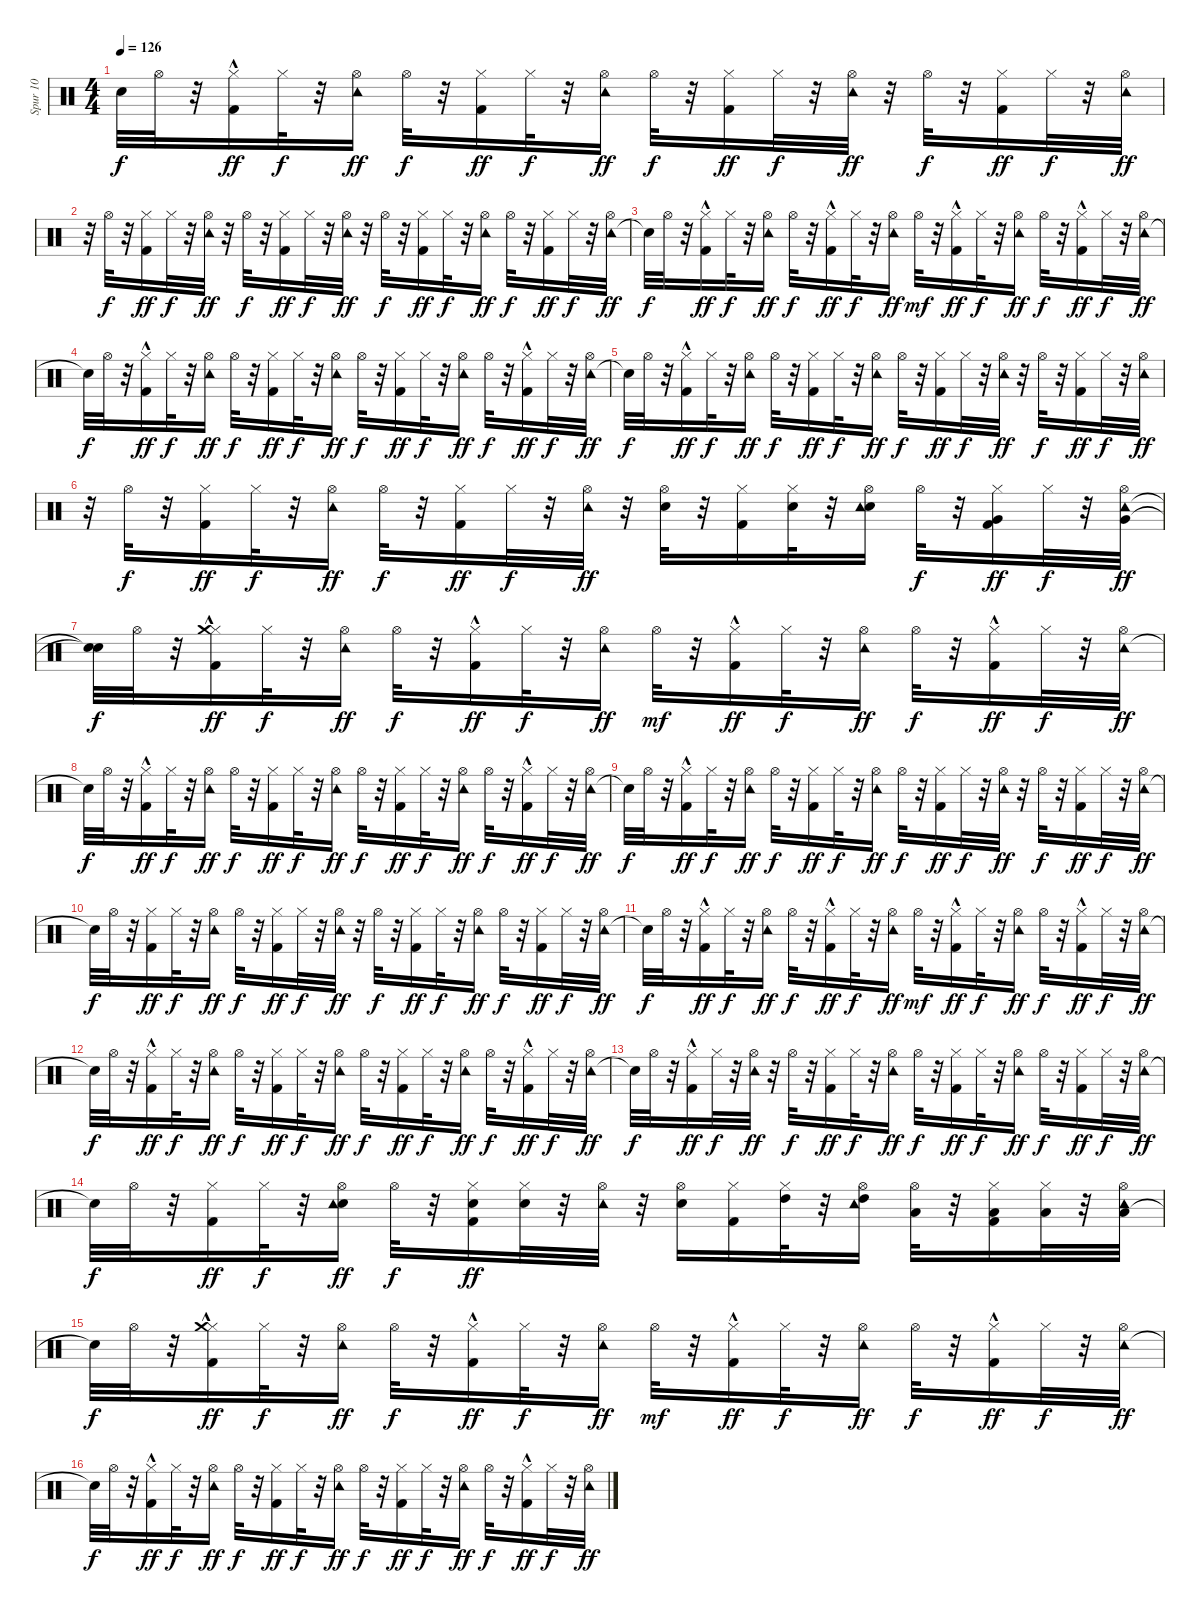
\track ("Spur 10" "Spur 10") {instrument percussion}
\staff {score}
\articulation defaults
\ts (4 4)
\tempo 126
\clef neutral
\ks c "Snare (hit)"{t}.32{dy f} "Hi-Hat (open)".32
r.32 ("Kick (hit) 2"{hac} "Hi-Hat (closed)").16{dy ff} "Hi-Hat (closed)".32{dy f} r.32 ("Tambourine (hit)" "Hi-Hat (open)").16{dy ff} "Hi-Hat (open)".32{dy f} r.32 ("Kick (hit) 2" "Hi-Hat (closed)").16{dy ff} "Hi-Hat (closed)".32{dy f} r.32 ("Tambourine (hit)" "Hi-Hat (open)").16{dy ff} "Hi-Hat (open)".32{dy f} r.32 ("Kick (hit) 2" "Hi-Hat (closed)").16{dy ff} "Hi-Hat (closed)".32{dy f} r.32 ("Tambourine (hit)" "Hi-Hat (open)").32{dy ff} r.32 "Hi-Hat (open)".32{dy f} r.32 ("Kick (hit) 2" "Hi-Hat (closed)").16{dy ff} "Hi-Hat (closed)".32{dy f} r.32 ("Tambourine (hit)" "Hi-Hat (open)").32{dy ff} |
r.32 "Hi-Hat (open)".32{dy f} r.32 ("Kick (hit) 2" "Hi-Hat (closed)").16{dy ff} "Hi-Hat (closed)".32{dy f} r.32 ("Tambourine (hit)" "Hi-Hat (open)").32{dy ff} r.32 "Hi-Hat (open)".32{dy f} r.32 ("Kick (hit) 2" "Hi-Hat (closed)").16{dy ff} "Hi-Hat (closed)".32{dy f} r.32 ("Tambourine (hit)" "Hi-Hat (open)").32{dy ff} r.32 "Hi-Hat (open)".32{dy f} r.32 ("Kick (hit) 2" "Hi-Hat (closed)").16{dy ff} "Hi-Hat (closed)".32{dy f} r.32 ("Tambourine (hit)" "Hi-Hat (open)").16{dy ff} "Hi-Hat (open)".32{dy f} r.32 ("Kick (hit) 2" "Hi-Hat (closed)").16{dy ff} "Hi-Hat (closed)".32{dy f} r.32 ("Tambourine (hit)" "Hi-Hat (open)").32{dy ff} |
"Snare (hit)"{t}.32{dy f} "Hi-Hat (open)".32 r.32 ("Kick (hit) 2"{hac} "Hi-Hat (closed)").16{dy ff} "Hi-Hat (closed)".32{dy f} r.32 ("Tambourine (hit)" "Hi-Hat (open)").16{dy ff} "Hi-Hat (open)".32{dy f} r.32 ("Kick (hit) 2"{hac} "Hi-Hat (closed)").16{dy ff} "Hi-Hat (closed)".32{dy f} r.32 ("Tambourine (hit)" "Hi-Hat (open)").16{dy ff} "Hi-Hat (open)".32{dy mf} r.32 ("Kick (hit) 2"{hac} "Hi-Hat (closed)").16{dy ff} "Hi-Hat (closed)".32{dy f} r.32 ("Tambourine (hit)" "Hi-Hat (open)").16{dy ff} "Hi-Hat (open)".32{dy f} r.32 ("Kick (hit) 2"{hac} "Hi-Hat (closed)").16{dy ff} "Hi-Hat (closed)".32{dy f} r.32 ("Tambourine (hit)" "Hi-Hat (open)").32{dy ff} |
"Snare (hit)"{t}.32{dy f} "Hi-Hat (open)".32 r.32 ("Kick (hit) 2"{hac} "Hi-Hat (closed)").16{dy ff} "Hi-Hat (closed)".32{dy f} r.32 ("Tambourine (hit)" "Hi-Hat (open)").16{dy ff} "Hi-Hat (open)".32{dy f} r.32 ("Kick (hit) 2" "Hi-Hat (closed)").16{dy ff} "Hi-Hat (closed)".32{dy f} r.32 ("Tambourine (hit)" "Hi-Hat (open)").16{dy ff} "Hi-Hat (open)".32{dy f} r.32 ("Kick (hit) 2" "Hi-Hat (closed)").16{dy ff} "Hi-Hat (closed)".32{dy f} r.32 ("Tambourine (hit)" "Hi-Hat (open)").16{dy ff} "Hi-Hat (open)".32{dy f} r.32 ("Kick (hit) 2"{hac} "Hi-Hat (closed)").16{dy ff} "Hi-Hat (closed)".32{dy f} r.32 ("Tambourine (hit)" "Hi-Hat (open)").32{dy ff} |
"Snare (hit)"{t}.32{dy f} "Hi-Hat (open)".32 r.32 ("Kick (hit) 2"{hac} "Hi-Hat (closed)").16{dy ff} "Hi-Hat (closed)".32{dy f} r.32 ("Tambourine (hit)" "Hi-Hat (open)").16{dy ff} "Hi-Hat (open)".32{dy f} r.32 ("Kick (hit) 2" "Hi-Hat (closed)").16{dy ff} "Hi-Hat (closed)".32{dy f} r.32 ("Tambourine (hit)" "Hi-Hat (open)").16{dy ff} "Hi-Hat (open)".32{dy f} r.32 ("Kick (hit) 2" "Hi-Hat (closed)").16{dy ff} "Hi-Hat (closed)".32{dy f} r.32 ("Tambourine (hit)" "Hi-Hat (open)").32{dy ff} r.32 "Hi-Hat (open)".32{dy f} r.32 ("Kick (hit) 2" "Hi-Hat (closed)").16{dy ff} "Hi-Hat (closed)".32{dy f} r.32 ("Tambourine (hit)" "Hi-Hat (open)").32{dy ff} |
r.32 "Hi-Hat (open)".32{dy f} r.32 ("Kick (hit) 2" "Hi-Hat (closed)").16{dy ff} "Hi-Hat (closed)".32{dy f} r.32 ("Tambourine (hit)" "Hi-Hat (open)").16{dy ff} "Hi-Hat (open)".32{dy f} r.32 ("Kick (hit) 2" "Hi-Hat (closed)").16{dy ff} "Hi-Hat (closed)".32{dy f} r.32 ("Tambourine (hit)" "Hi-Hat (open)").32{dy ff} r.32 ("Electric Snare (hit)" "Hi-Hat (open)").32 r.32 ("Kick (hit) 2" "Hi-Hat (closed)").16 ("Electric Snare (hit)" "Hi-Hat (closed)").32 r.32 ("Electric Snare (hit)" "Tambourine (hit)" "Hi-Hat (open)").16 "Hi-Hat (open)".32{dy f} r.32 ("Very Low Tom (hit)" "Kick (hit) 2" "Hi-Hat (closed)").16{dy ff} "Hi-Hat (closed)".32{dy f} r.32 ("Very Low Tom (hit)" "Tambourine (hit)" "Hi-Hat (open)").32{dy ff} |
("Snare (hit)"{t} "Snare (hit)"{t}).32{dy f} "Hi-Hat (open)".32 r.32 ("Kick (hit) 2"{hac} "Hi-Hat (closed)" "Crash medium (hit)").16{dy ff} "Hi-Hat (closed)".32{dy f} r.32 ("Tambourine (hit)" "Hi-Hat (open)").16{dy ff} "Hi-Hat (open)".32{dy f} r.32 ("Kick (hit) 2"{hac} "Hi-Hat (closed)").16{dy ff} "Hi-Hat (closed)".32{dy f} r.32 ("Tambourine (hit)" "Hi-Hat (open)").16{dy ff} "Hi-Hat (open)".32{dy mf} r.32 ("Kick (hit) 2"{hac} "Hi-Hat (closed)").16{dy ff} "Hi-Hat (closed)".32{dy f} r.32 ("Tambourine (hit)" "Hi-Hat (open)").16{dy ff} "Hi-Hat (open)".32{dy f} r.32 ("Kick (hit) 2"{hac} "Hi-Hat (closed)").16{dy ff} "Hi-Hat (closed)".32{dy f} r.32 ("Tambourine (hit)" "Hi-Hat (open)").32{dy ff} |
"Snare (hit)"{t}.32{dy f} "Hi-Hat (open)".32 r.32 ("Kick (hit) 2"{hac} "Hi-Hat (closed)").16{dy ff} "Hi-Hat (closed)".32{dy f} r.32 ("Tambourine (hit)" "Hi-Hat (open)").16{dy ff} "Hi-Hat (open)".32{dy f} r.32 ("Kick (hit) 2" "Hi-Hat (closed)").16{dy ff} "Hi-Hat (closed)".32{dy f} r.32 ("Tambourine (hit)" "Hi-Hat (open)").16{dy ff} "Hi-Hat (open)".32{dy f} r.32 ("Kick (hit) 2" "Hi-Hat (closed)").16{dy ff} "Hi-Hat (closed)".32{dy f} r.32 ("Tambourine (hit)" "Hi-Hat (open)").16{dy ff} "Hi-Hat (open)".32{dy f} r.32 ("Kick (hit) 2"{hac} "Hi-Hat (closed)").16{dy ff} "Hi-Hat (closed)".32{dy f} r.32 ("Tambourine (hit)" "Hi-Hat (open)").32{dy ff} |
"Snare (hit)"{t}.32{dy f} "Hi-Hat (open)".32 r.32 ("Kick (hit) 2"{hac} "Hi-Hat (closed)").16{dy ff} "Hi-Hat (closed)".32{dy f} r.32 ("Tambourine (hit)" "Hi-Hat (open)").16{dy ff} "Hi-Hat (open)".32{dy f} r.32 ("Kick (hit) 2" "Hi-Hat (closed)").16{dy ff} "Hi-Hat (closed)".32{dy f} r.32 ("Tambourine (hit)" "Hi-Hat (open)").16{dy ff} "Hi-Hat (open)".32{dy f} r.32 ("Kick (hit) 2" "Hi-Hat (closed)").16{dy ff} "Hi-Hat (closed)".32{dy f} r.32 ("Tambourine (hit)" "Hi-Hat (open)").32{dy ff} r.32 "Hi-Hat (open)".32{dy f} r.32 ("Kick (hit) 2" "Hi-Hat (closed)").16{dy ff} "Hi-Hat (closed)".32{dy f} r.32 ("Tambourine (hit)" "Hi-Hat (open)").32{dy ff} |
"Snare (hit)"{t}.32{dy f} "Hi-Hat (open)".32 r.32 ("Kick (hit) 2" "Hi-Hat (closed)").16{dy ff} "Hi-Hat (closed)".32{dy f} r.32 ("Tambourine (hit)" "Hi-Hat (open)").16{dy ff} "Hi-Hat (open)".32{dy f} r.32 ("Kick (hit) 2" "Hi-Hat (closed)").16{dy ff} "Hi-Hat (closed)".32{dy f} r.32 ("Tambourine (hit)" "Hi-Hat (open)").32{dy ff} r.32 "Hi-Hat (open)".32{dy f} r.32 ("Kick (hit) 2" "Hi-Hat (closed)").16{dy ff} "Hi-Hat (closed)".32{dy f} r.32 ("Tambourine (hit)" "Hi-Hat (open)").16{dy ff} "Hi-Hat (open)".32{dy f} r.32 ("Kick (hit) 2" "Hi-Hat (closed)").16{dy ff} "Hi-Hat (closed)".32{dy f} r.32 ("Tambourine (hit)" "Hi-Hat (open)").32{dy ff} |
"Snare (hit)"{t}.32{dy f} "Hi-Hat (open)".32 r.32 ("Kick (hit) 2"{hac} "Hi-Hat (closed)").16{dy ff} "Hi-Hat (closed)".32{dy f} r.32 ("Tambourine (hit)" "Hi-Hat (open)").16{dy ff} "Hi-Hat (open)".32{dy f} r.32 ("Kick (hit) 2"{hac} "Hi-Hat (closed)").16{dy ff} "Hi-Hat (closed)".32{dy f} r.32 ("Tambourine (hit)" "Hi-Hat (open)").16{dy ff} "Hi-Hat (open)".32{dy mf} r.32 ("Kick (hit) 2"{hac} "Hi-Hat (closed)").16{dy ff} "Hi-Hat (closed)".32{dy f} r.32 ("Tambourine (hit)" "Hi-Hat (open)").16{dy ff} "Hi-Hat (open)".32{dy f} r.32 ("Kick (hit) 2"{hac} "Hi-Hat (closed)").16{dy ff} "Hi-Hat (closed)".32{dy f} r.32 ("Tambourine (hit)" "Hi-Hat (open)").32{dy ff} |
"Snare (hit)"{t}.32{dy f} "Hi-Hat (open)".32 r.32 ("Kick (hit) 2"{hac} "Hi-Hat (closed)").16{dy ff} "Hi-Hat (closed)".32{dy f} r.32 ("Tambourine (hit)" "Hi-Hat (open)").16{dy ff} "Hi-Hat (open)".32{dy f} r.32 ("Kick (hit) 2" "Hi-Hat (closed)").16{dy ff} "Hi-Hat (closed)".32{dy f} r.32 ("Tambourine (hit)" "Hi-Hat (open)").16{dy ff} "Hi-Hat (open)".32{dy f} r.32 ("Kick (hit) 2" "Hi-Hat (closed)").16{dy ff} "Hi-Hat (closed)".32{dy f} r.32 ("Tambourine (hit)" "Hi-Hat (open)").16{dy ff} "Hi-Hat (open)".32{dy f} r.32 ("Kick (hit) 2"{hac} "Hi-Hat (closed)").16{dy ff} "Hi-Hat (closed)".32{dy f} r.32 ("Tambourine (hit)" "Hi-Hat (open)").32{dy ff} |
"Snare (hit)"{t}.32{dy f} "Hi-Hat (open)".32 r.32 ("Kick (hit) 2"{hac} "Hi-Hat (closed)").16{dy ff} "Hi-Hat (closed)".32{dy f} r.32 ("Tambourine (hit)" "Hi-Hat (open)").32{dy ff} r.32 "Hi-Hat (open)".32{dy f} r.32 ("Kick (hit) 2" "Hi-Hat (closed)").16{dy ff} "Hi-Hat (closed)".32{dy f} r.32 ("Tambourine (hit)" "Hi-Hat (open)").16{dy ff} "Hi-Hat (open)".32{dy f} r.32 ("Kick (hit) 2" "Hi-Hat (closed)").16{dy ff} "Hi-Hat (closed)".32{dy f} r.32 ("Tambourine (hit)" "Hi-Hat (open)").16{dy ff} "Hi-Hat (open)".32{dy f} r.32 ("Kick (hit) 2" "Hi-Hat (closed)").16{dy ff} "Hi-Hat (closed)".32{dy f} r.32 ("Tambourine (hit)" "Hi-Hat (open)").32{dy ff} |
"Snare (hit)"{t}.32{dy f} "Hi-Hat (open)".32 r.32 ("Kick (hit) 2" "Hi-Hat (closed)").16{dy ff} "Hi-Hat (closed)".32{dy f} r.32 ("Electric Snare (hit)" "Tambourine (hit)" "Hi-Hat (open)").16{dy ff} "Hi-Hat (open)".32{dy f} r.32 ("Electric Snare (hit)" "Kick (hit) 2" "Hi-Hat (closed)").16{dy ff} ("Electric Snare (hit)" "Hi-Hat (closed)").32 r.32 ("Tambourine (hit)" "Hi-Hat (open)").32 r.32 ("Electric Snare (hit)" "Hi-Hat (open)").16 ("Kick (hit) 2" "Hi-Hat (closed)").16 ("High Tom (hit)" "Hi-Hat (closed)").32 r.32 ("High Tom (hit)" "Tambourine (hit)" "Hi-Hat (open)").16 ("Low Tom (hit)" "Hi-Hat (open)").32 r.32 ("Low Tom (hit)" "Kick (hit) 2" "Hi-Hat (closed)").16 ("Low Floor Tom (hit)" "Hi-Hat (closed)").32 r.32 ("Low Floor Tom (hit)" "Tambourine (hit)" "Hi-Hat (open)").32 |
"Snare (hit)"{t}.32{dy f} "Hi-Hat (open)".32 r.32 ("Kick (hit) 2"{hac} "Hi-Hat (closed)" "Crash medium (hit)").16{dy ff} "Hi-Hat (closed)".32{dy f} r.32 ("Tambourine (hit)" "Hi-Hat (open)").16{dy ff} "Hi-Hat (open)".32{dy f} r.32 ("Kick (hit) 2"{hac} "Hi-Hat (closed)").16{dy ff} "Hi-Hat (closed)".32{dy f} r.32 ("Tambourine (hit)" "Hi-Hat (open)").16{dy ff} "Hi-Hat (open)".32{dy mf} r.32 ("Kick (hit) 2"{hac} "Hi-Hat (closed)").16{dy ff} "Hi-Hat (closed)".32{dy f} r.32 ("Tambourine (hit)" "Hi-Hat (open)").16{dy ff} "Hi-Hat (open)".32{dy f} r.32 ("Kick (hit) 2"{hac} "Hi-Hat (closed)").16{dy ff} "Hi-Hat (closed)".32{dy f} r.32 ("Tambourine (hit)" "Hi-Hat (open)").32{dy ff} |
"Snare (hit)"{t}.32{dy f} "Hi-Hat (open)".32 r.32 ("Kick (hit) 2"{hac} "Hi-Hat (closed)").16{dy ff} "Hi-Hat (closed)".32{dy f} r.32 ("Tambourine (hit)" "Hi-Hat (open)").16{dy ff} "Hi-Hat (open)".32{dy f} r.32 ("Kick (hit) 2" "Hi-Hat (closed)").16{dy ff} "Hi-Hat (closed)".32{dy f} r.32 ("Tambourine (hit)" "Hi-Hat (open)").16{dy ff} "Hi-Hat (open)".32{dy f} r.32 ("Kick (hit) 2" "Hi-Hat (closed)").16{dy ff} "Hi-Hat (closed)".32{dy f} r.32 ("Tambourine (hit)" "Hi-Hat (open)").16{dy ff} "Hi-Hat (open)".32{dy f} r.32 ("Kick (hit) 2"{hac} "Hi-Hat (closed)").16{dy ff} "Hi-Hat (closed)".32{dy f} r.32 ("Tambourine (hit)" "Hi-Hat (open)").32{dy ff}
